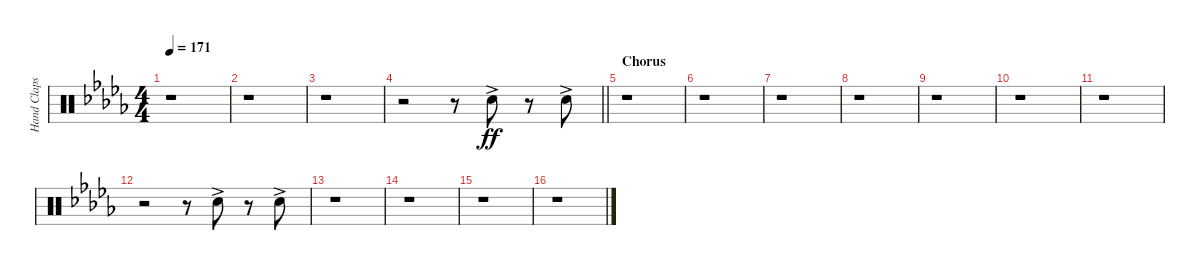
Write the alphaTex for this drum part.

\track ("Hand Claps" "Hand Claps") {instrument percussion}
\staff {score}
\articulation defaults
\ts (4 4)
\tempo 171
\clef neutral
\ks db
r.1{dy ff} |
r.1 |
r.1 |
\barLineRight lightlight
r.2 r.8 "Hand Clap (hit)"{ac}.8 r.8 "Hand Clap (hit)"{ac}.8 |
\section ("" "Chorus")
r.1 |
r.1 |
r.1 |
r.1 |
r.1 |
r.1 |
r.1 |
r.2 r.8 "Hand Clap (hit)"{ac}.8 r.8 "Hand Clap (hit)"{ac}.8 |
r.1 |
r.1 |
r.1 |
r.1
